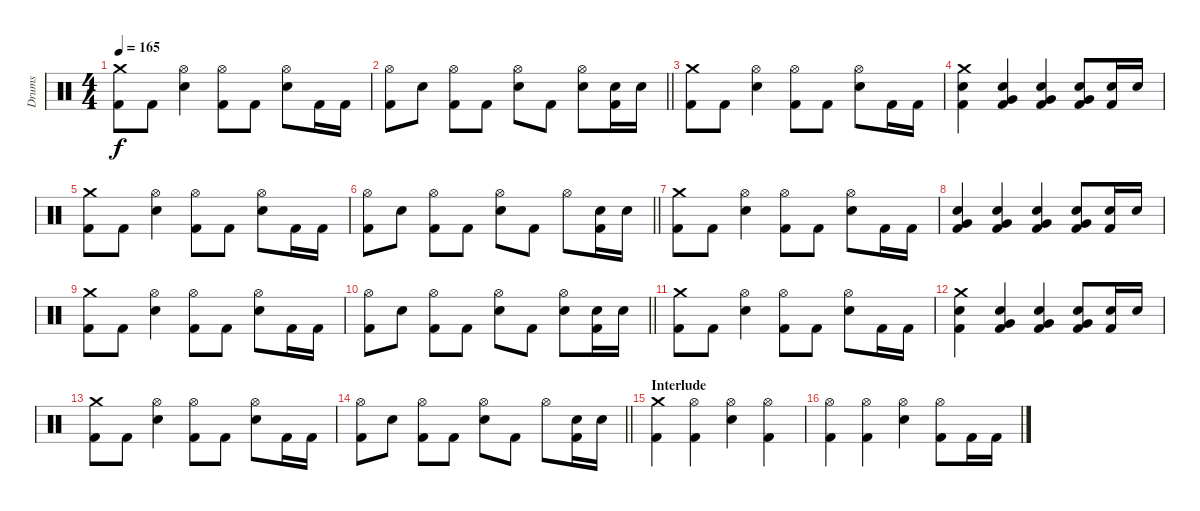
\track ("Drums" "Drums") {instrument percussion}
\staff {score}
\articulation defaults
\ts (4 4)
\tempo 165
\clef neutral
\ks c
("Crash medium (hit)" "Kick (hit) 2").8{dy f} "Kick (hit) 2".8 ("Hi-Hat (open)" "Electric Snare (hit)").4 ("Hi-Hat (open)" "Kick (hit) 2").8 "Kick (hit) 2".8 ("Hi-Hat (open)" "Electric Snare (hit)").8 "Kick (hit) 2".16 "Kick (hit) 2".16 |
\barLineRight lightlight
("Hi-Hat (open)" "Kick (hit) 2").8 "Electric Snare (hit)".8 ("Hi-Hat (open)" "Kick (hit) 2").8 "Kick (hit) 2".8 ("Hi-Hat (open)" "Electric Snare (hit)").8 "Kick (hit) 2".8 ("Hi-Hat (open)" "Electric Snare (hit)").8 ("Electric Snare (hit)" "Kick (hit) 2").16 "Electric Snare (hit)".16 |
("Crash medium (hit)" "Kick (hit) 2").8 "Kick (hit) 2".8 ("Hi-Hat (open)" "Electric Snare (hit)").4 ("Hi-Hat (open)" "Kick (hit) 2").8 "Kick (hit) 2".8 ("Hi-Hat (open)" "Electric Snare (hit)").8 "Kick (hit) 2".16 "Kick (hit) 2".16 |
("Crash medium (hit)" "Electric Snare (hit)" "Kick (hit) 2").4 ("Very Low Tom (hit)" "Electric Snare (hit)" "Kick (hit) 2").4 ("Very Low Tom (hit)" "Electric Snare (hit)" "Kick (hit) 2").4 ("Very Low Tom (hit)" "Electric Snare (hit)" "Kick (hit) 2").8 ("Electric Snare (hit)" "Kick (hit) 2").16 "Electric Snare (hit)".16 |
("Crash medium (hit)" "Kick (hit) 2").8 "Kick (hit) 2".8 ("Hi-Hat (open)" "Electric Snare (hit)").4 ("Hi-Hat (open)" "Kick (hit) 2").8 "Kick (hit) 2".8 ("Hi-Hat (open)" "Electric Snare (hit)").8 "Kick (hit) 2".16 "Kick (hit) 2".16 |
\barLineRight lightlight
("Hi-Hat (open)" "Kick (hit) 2").8 "Electric Snare (hit)".8 ("Hi-Hat (open)" "Kick (hit) 2").8 "Kick (hit) 2".8 ("Hi-Hat (open)" "Electric Snare (hit)").8 "Kick (hit) 2".8 "Hi-Hat (open)".8 ("Electric Snare (hit)" "Kick (hit) 2").16 "Electric Snare (hit)".16 |
("Crash medium (hit)" "Kick (hit) 2").8 "Kick (hit) 2".8 ("Hi-Hat (open)" "Electric Snare (hit)").4 ("Hi-Hat (open)" "Kick (hit) 2").8 "Kick (hit) 2".8 ("Hi-Hat (open)" "Electric Snare (hit)").8 "Kick (hit) 2".16 "Kick (hit) 2".16 |
("Very Low Tom (hit)" "Electric Snare (hit)" "Kick (hit) 2").4 ("Very Low Tom (hit)" "Electric Snare (hit)" "Kick (hit) 2").4 ("Very Low Tom (hit)" "Electric Snare (hit)" "Kick (hit) 2").4 ("Very Low Tom (hit)" "Electric Snare (hit)" "Kick (hit) 2").8 ("Electric Snare (hit)" "Kick (hit) 2").16 "Electric Snare (hit)".16 |
("Crash medium (hit)" "Kick (hit) 2").8 "Kick (hit) 2".8 ("Hi-Hat (open)" "Electric Snare (hit)").4 ("Hi-Hat (open)" "Kick (hit) 2").8 "Kick (hit) 2".8 ("Hi-Hat (open)" "Electric Snare (hit)").8 "Kick (hit) 2".16 "Kick (hit) 2".16 |
\barLineRight lightlight
("Hi-Hat (open)" "Kick (hit) 2").8 "Electric Snare (hit)".8 ("Hi-Hat (open)" "Kick (hit) 2").8 "Kick (hit) 2".8 ("Hi-Hat (open)" "Electric Snare (hit)").8 "Kick (hit) 2".8 ("Hi-Hat (open)" "Electric Snare (hit)").8 ("Electric Snare (hit)" "Kick (hit) 2").16 "Electric Snare (hit)".16 |
("Crash medium (hit)" "Kick (hit) 2").8 "Kick (hit) 2".8 ("Hi-Hat (open)" "Electric Snare (hit)").4 ("Hi-Hat (open)" "Kick (hit) 2").8 "Kick (hit) 2".8 ("Hi-Hat (open)" "Electric Snare (hit)").8 "Kick (hit) 2".16 "Kick (hit) 2".16 |
("Crash medium (hit)" "Electric Snare (hit)" "Kick (hit) 2").4 ("Very Low Tom (hit)" "Electric Snare (hit)" "Kick (hit) 2").4 ("Very Low Tom (hit)" "Electric Snare (hit)" "Kick (hit) 2").4 ("Very Low Tom (hit)" "Electric Snare (hit)" "Kick (hit) 2").8 ("Electric Snare (hit)" "Kick (hit) 2").16 "Electric Snare (hit)".16 |
("Crash medium (hit)" "Kick (hit) 2").8 "Kick (hit) 2".8 ("Hi-Hat (open)" "Electric Snare (hit)").4 ("Hi-Hat (open)" "Kick (hit) 2").8 "Kick (hit) 2".8 ("Hi-Hat (open)" "Electric Snare (hit)").8 "Kick (hit) 2".16 "Kick (hit) 2".16 |
\barLineRight lightlight
("Hi-Hat (open)" "Kick (hit) 2").8 "Electric Snare (hit)".8 ("Hi-Hat (open)" "Kick (hit) 2").8 "Kick (hit) 2".8 ("Hi-Hat (open)" "Electric Snare (hit)").8 "Kick (hit) 2".8 "Hi-Hat (open)".8 ("Electric Snare (hit)" "Kick (hit) 2").16 "Electric Snare (hit)".16 |
\section ("" "Interlude")
("Crash medium (hit)" "Kick (hit) 2").4 ("Hi-Hat (open)" "Kick (hit) 2").4 ("Hi-Hat (open)" "Electric Snare (hit)").4 ("Hi-Hat (open)" "Kick (hit) 2").4 |
("Hi-Hat (open)" "Kick (hit) 2").4 ("Hi-Hat (open)" "Kick (hit) 2").4 ("Hi-Hat (open)" "Electric Snare (hit)").4 ("Hi-Hat (open)" "Kick (hit) 2").8 "Kick (hit) 2".16 "Kick (hit) 2".16
